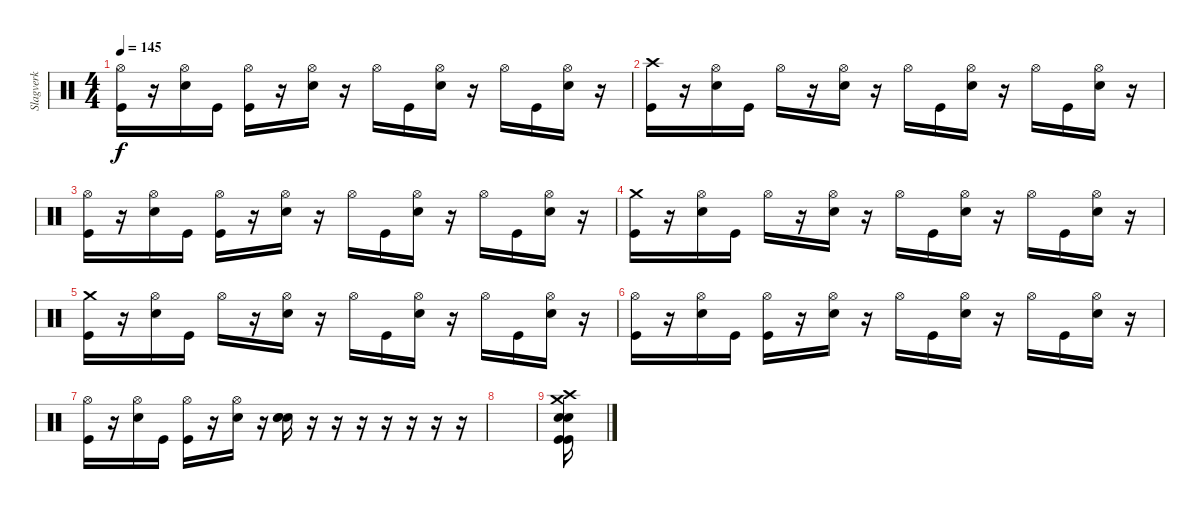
\track ("Slagverk" "Slagverk") {instrument percussion}
\staff {score}
\articulation defaults
\ts (4 4)
\tempo 145
\clef neutral
\ks c
("Hi-Hat (open)" "Kick (hit)").16{dy f} r.16 ("Hi-Hat (open)" "Snare (hit) 2").16 "Kick (hit)".16 ("Hi-Hat (open)" "Kick (hit)").16 r.16 ("Hi-Hat (open)" "Snare (hit) 2").16 r.16 "Hi-Hat (open)".16 "Kick (hit)".16 ("Hi-Hat (open)" "Snare (hit) 2").16 r.16 "Hi-Hat (open)".16 "Kick (hit)".16 ("Hi-Hat (open)" "Snare (hit) 2").16 r.16 |
("Crash high (hit)" "Kick (hit)").16 r.16 ("Hi-Hat (open)" "Snare (hit) 2").16 "Kick (hit)".16 "Hi-Hat (open)".16 r.16 ("Hi-Hat (open)" "Snare (hit) 2").16 r.16 "Hi-Hat (open)".16 "Kick (hit)".16 ("Hi-Hat (open)" "Snare (hit) 2").16 r.16 "Hi-Hat (open)".16 "Kick (hit)".16 ("Hi-Hat (open)" "Snare (hit) 2").16 r.16 |
("Hi-Hat (open)" "Kick (hit)").16 r.16 ("Hi-Hat (open)" "Snare (hit) 2").16 "Kick (hit)".16 ("Hi-Hat (open)" "Kick (hit)").16 r.16 ("Hi-Hat (open)" "Snare (hit) 2").16 r.16 "Hi-Hat (open)".16 "Kick (hit)".16 ("Hi-Hat (open)" "Snare (hit) 2").16 r.16 "Hi-Hat (open)".16 "Kick (hit)".16 ("Hi-Hat (open)" "Snare (hit) 2").16 r.16 |
("Crash medium (hit)" "Kick (hit)").16 r.16 ("Hi-Hat (open)" "Snare (hit) 2").16 "Kick (hit)".16 "Hi-Hat (open)".16 r.16 ("Hi-Hat (open)" "Snare (hit) 2").16 r.16 "Hi-Hat (open)".16 "Kick (hit)".16 ("Hi-Hat (open)" "Snare (hit) 2").16 r.16 "Hi-Hat (open)".16 "Kick (hit)".16 ("Hi-Hat (open)" "Snare (hit) 2").16 r.16 |
("Crash medium (hit)" "Kick (hit)").16 r.16 ("Hi-Hat (open)" "Snare (hit) 2").16 "Kick (hit)".16 "Hi-Hat (open)".16 r.16 ("Hi-Hat (open)" "Snare (hit) 2").16 r.16 "Hi-Hat (open)".16 "Kick (hit)".16 ("Hi-Hat (open)" "Snare (hit) 2").16 r.16 "Hi-Hat (open)".16 "Kick (hit)".16 ("Hi-Hat (open)" "Snare (hit) 2").16 r.16 |
("Hi-Hat (open)" "Kick (hit)").16 r.16 ("Hi-Hat (open)" "Snare (hit) 2").16 "Kick (hit)".16 ("Hi-Hat (open)" "Kick (hit)").16 r.16 ("Hi-Hat (open)" "Snare (hit) 2").16 r.16 "Hi-Hat (open)".16 "Kick (hit)".16 ("Hi-Hat (open)" "Snare (hit) 2").16 r.16 "Hi-Hat (open)".16 "Kick (hit)".16 ("Hi-Hat (open)" "Snare (hit) 2").16 r.16 |
("Hi-Hat (open)" "Kick (hit)").16 r.16 ("Hi-Hat (open)" "Snare (hit) 2").16 "Kick (hit)".16 ("Hi-Hat (open)" "Kick (hit)").16 r.16 ("Hi-Hat (open)" "Snare (hit) 2").16 r.16 ("Snare (hit) 2" "Snare (hit) 2" "Snare (hit) 2").16 r.16 r.16 r.16 r.16 r.16 r.16 r.16 |
|
("Crash medium (hit)" "Crash high (hit)" "Snare (hit) 2" "Snare (hit) 2" "Kick (hit)" "Kick (hit)").16
